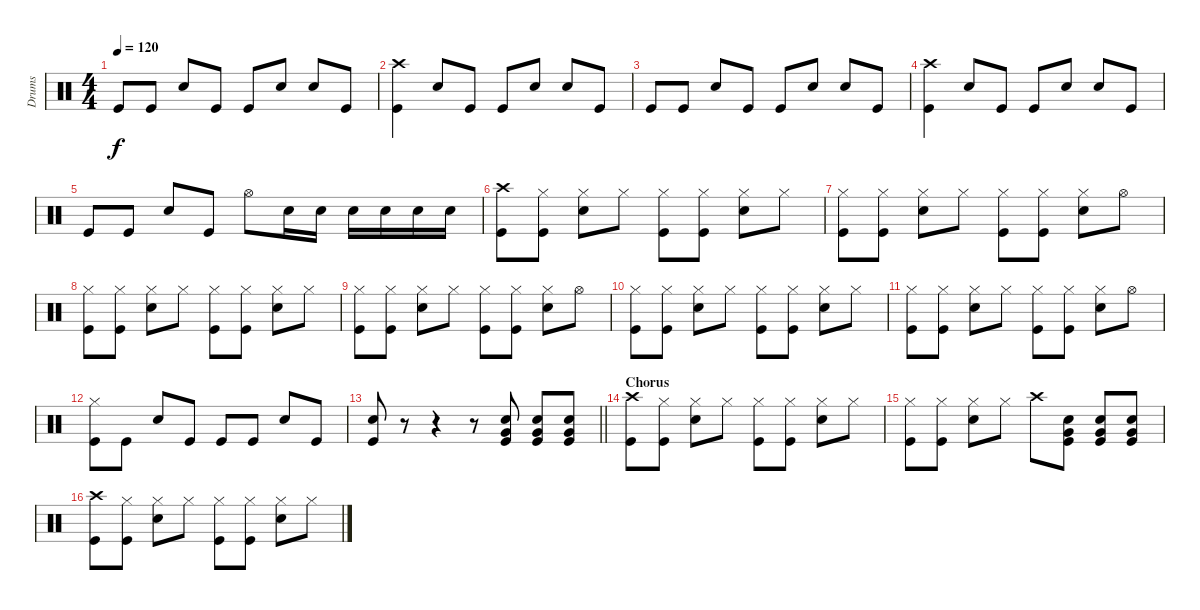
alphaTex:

\track ("Drums" "Drums") {instrument percussion}
\staff {score}
\articulation defaults
\ts (4 4)
\tempo 120
\clef neutral
\ks c "Kick (hit)".8{dy f} "Kick (hit)".8 "Snare (hit) 2".8 "Kick (hit)".8 "Kick (hit)".8 "Snare (hit) 2".8 "Snare (hit) 2".8 "Kick (hit)".8
|
("Kick (hit)" "Crash high (hit)").4 "Snare (hit) 2".8 "Kick (hit)".8 "Kick (hit)".8 "Snare (hit) 2".8 "Snare (hit) 2".8 "Kick (hit)".8 |
"Kick (hit)".8 "Kick (hit)".8 "Snare (hit) 2".8 "Kick (hit)".8 "Kick (hit)".8 "Snare (hit) 2".8 "Snare (hit) 2".8 "Kick (hit)".8 |
("Kick (hit)" "Crash high (hit)").4 "Snare (hit) 2".8 "Kick (hit)".8 "Kick (hit)".8 "Snare (hit) 2".8 "Snare (hit) 2".8 "Kick (hit)".8 |
"Kick (hit)".8 "Kick (hit)".8 "Snare (hit) 2".8 "Kick (hit)".8 "Hi-Hat (open)".8 "Snare (hit) 2".16 "Snare (hit) 2".16 "Snare (hit) 2".16 "Snare (hit) 2".16 "Snare (hit) 2".16 "Snare (hit) 2".16 |
("Crash high (hit)" "Kick (hit)").8 ("Hi-Hat (closed)" "Kick (hit)").8 ("Hi-Hat (closed)" "Snare (hit) 2").8 "Hi-Hat (closed)".8 ("Hi-Hat (closed)" "Kick (hit)").8 ("Hi-Hat (closed)" "Kick (hit)").8 ("Hi-Hat (closed)" "Snare (hit) 2").8 "Hi-Hat (closed)".8 |
("Hi-Hat (closed)" "Kick (hit)").8 ("Hi-Hat (closed)" "Kick (hit)").8 ("Hi-Hat (closed)" "Snare (hit) 2").8 "Hi-Hat (closed)".8 ("Hi-Hat (closed)" "Kick (hit)").8 ("Hi-Hat (closed)" "Kick (hit)").8 ("Hi-Hat (closed)" "Snare (hit) 2").8 "Hi-Hat (open)".8 |
("Hi-Hat (closed)" "Kick (hit)").8 ("Hi-Hat (closed)" "Kick (hit)").8 ("Hi-Hat (closed)" "Snare (hit) 2").8 "Hi-Hat (closed)".8 ("Hi-Hat (closed)" "Kick (hit)").8 ("Hi-Hat (closed)" "Kick (hit)").8 ("Hi-Hat (closed)" "Snare (hit) 2").8 "Hi-Hat (closed)".8 |
("Hi-Hat (closed)" "Kick (hit)").8 ("Hi-Hat (closed)" "Kick (hit)").8 ("Hi-Hat (closed)" "Snare (hit) 2").8 "Hi-Hat (closed)".8 ("Hi-Hat (closed)" "Kick (hit)").8 ("Hi-Hat (closed)" "Kick (hit)").8 ("Hi-Hat (closed)" "Snare (hit) 2").8 "Hi-Hat (open)".8 |
("Hi-Hat (closed)" "Kick (hit)").8 ("Hi-Hat (closed)" "Kick (hit)").8 ("Hi-Hat (closed)" "Snare (hit) 2").8 "Hi-Hat (closed)".8 ("Hi-Hat (closed)" "Kick (hit)").8 ("Hi-Hat (closed)" "Kick (hit)").8 ("Hi-Hat (closed)" "Snare (hit) 2").8 "Hi-Hat (closed)".8 |
("Hi-Hat (closed)" "Kick (hit)").8 ("Hi-Hat (closed)" "Kick (hit)").8 ("Hi-Hat (closed)" "Snare (hit) 2").8 "Hi-Hat (closed)".8 ("Hi-Hat (closed)" "Kick (hit)").8 ("Hi-Hat (closed)" "Kick (hit)").8 ("Hi-Hat (closed)" "Snare (hit) 2").8 "Hi-Hat (open)".8 |
("Hi-Hat (closed)" "Kick (hit)").8 "Kick (hit)".8 "Snare (hit) 2".8 "Kick (hit)".8 "Kick (hit)".8 "Kick (hit)".8 "Snare (hit) 2".8 "Kick (hit)".8 |
\barLineRight lightlight
("Kick (hit)" "Snare (hit) 2").8 r.8 r.4 r.8 ("Snare (hit) 2" "Very Low Tom (hit)" "Kick (hit)").8 ("Snare (hit) 2" "Very Low Tom (hit)" "Kick (hit)").8 ("Snare (hit) 2" "Very Low Tom (hit)" "Kick (hit)").8 |
\section ("" "Chorus")
("Crash high (hit)" "Kick (hit)").8 ("Hi-Hat (closed)" "Kick (hit)").8 ("Hi-Hat (closed)" "Snare (hit) 2").8 "Hi-Hat (closed)".8 ("Hi-Hat (closed)" "Kick (hit)").8 ("Hi-Hat (closed)" "Kick (hit)").8 ("Hi-Hat (closed)" "Snare (hit) 2").8 "Hi-Hat (closed)".8 |
("Hi-Hat (closed)" "Kick (hit)").8 ("Hi-Hat (closed)" "Kick (hit)").8 ("Hi-Hat (closed)" "Snare (hit) 2").8 "Hi-Hat (closed)".8 "Crash high (hit)".8 ("Snare (hit) 2" "Very Low Tom (hit)" "Kick (hit)").8 ("Snare (hit) 2" "Very Low Tom (hit)" "Kick (hit)").8 ("Snare (hit) 2" "Very Low Tom (hit)" "Kick (hit)").8 |
("Crash high (hit)" "Kick (hit)").8 ("Hi-Hat (closed)" "Kick (hit)").8 ("Hi-Hat (closed)" "Snare (hit) 2").8 "Hi-Hat (closed)".8 ("Hi-Hat (closed)" "Kick (hit)").8 ("Hi-Hat (closed)" "Kick (hit)").8 ("Hi-Hat (closed)" "Snare (hit) 2").8 "Hi-Hat (closed)".8
